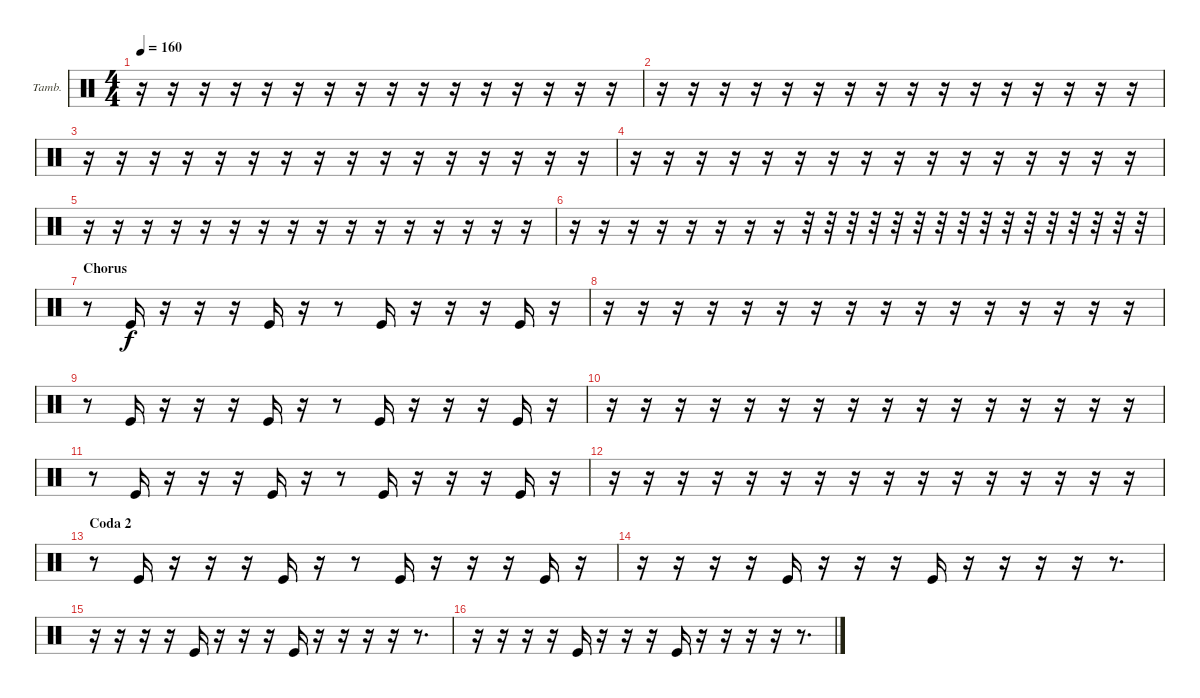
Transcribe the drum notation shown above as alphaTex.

\bracketExtendMode groupsimilarinstruments
\firstSystemTrackNameOrientation horizontal
\otherSystemsTrackNameOrientation horizontal
\track ("Tambourine" "Tamb.") {mute instrument percussion}
\staff {score}
\articulation defaults
\ts (4 4)
\tempo 160
\clef neutral
\ks c
r.16{dy f} r.16 r.16 r.16 r.16 r.16 r.16 r.16 r.16 r.16 r.16 r.16 r.16 r.16 r.16 r.16 |
r.16 r.16 r.16 r.16 r.16 r.16 r.16 r.16 r.16 r.16 r.16 r.16 r.16 r.16 r.16 r.16 |
r.16 r.16 r.16 r.16 r.16 r.16 r.16 r.16 r.16 r.16 r.16 r.16 r.16 r.16 r.16 r.16 |
r.16 r.16 r.16 r.16 r.16 r.16 r.16 r.16 r.16 r.16 r.16 r.16 r.16 r.16 r.16 r.16 |
r.16 r.16 r.16 r.16 r.16 r.16 r.16 r.16 r.16 r.16 r.16 r.16 r.16 r.16 r.16 r.16 |
r.16 r.16 r.16 r.16 r.16 r.16 r.16 r.16 r.32 r.32 r.32 r.32 r.32 r.32 r.32 r.32 r.32 r.32 r.32 r.32 r.32 r.32 r.32 r.32 |
\section ("" "Chorus")
r.8 "Kick (hit)".16 r.16 r.16 r.16 "Kick (hit)".16 r.16 r.8 "Kick (hit)".16 r.16 r.16 r.16 "Kick (hit)".16 r.16 |
r.16 r.16 r.16 r.16 r.16 r.16 r.16 r.16 r.16 r.16 r.16 r.16 r.16 r.16 r.16 r.16 |
r.8 "Kick (hit)".16 r.16 r.16 r.16 "Kick (hit)".16 r.16 r.8 "Kick (hit)".16 r.16 r.16 r.16 "Kick (hit)".16 r.16 |
r.16 r.16 r.16 r.16 r.16 r.16 r.16 r.16 r.16 r.16 r.16 r.16 r.16 r.16 r.16 r.16 |
r.8 "Kick (hit)".16 r.16 r.16 r.16 "Kick (hit)".16 r.16 r.8 "Kick (hit)".16 r.16 r.16 r.16 "Kick (hit)".16 r.16 |
r.16 r.16 r.16 r.16 r.16 r.16 r.16 r.16 r.16 r.16 r.16 r.16 r.16 r.16 r.16 r.16 |
\section ("" "Coda 2")
r.8 "Kick (hit)".16 r.16 r.16 r.16 "Kick (hit)".16 r.16 r.8 "Kick (hit)".16 r.16 r.16 r.16 "Kick (hit)".16 r.16 |
r.16 r.16 r.16 r.16 "Kick (hit)".16 r.16 r.16 r.16 "Kick (hit)".16 r.16 r.16 r.16 r.16 r.8{d} |
r.16 r.16 r.16 r.16 "Kick (hit)".16 r.16 r.16 r.16 "Kick (hit)".16 r.16 r.16 r.16 r.16 r.8{d} |
r.16 r.16 r.16 r.16 "Kick (hit)".16 r.16 r.16 r.16 "Kick (hit)".16 r.16 r.16 r.16 r.16 r.8{d}
